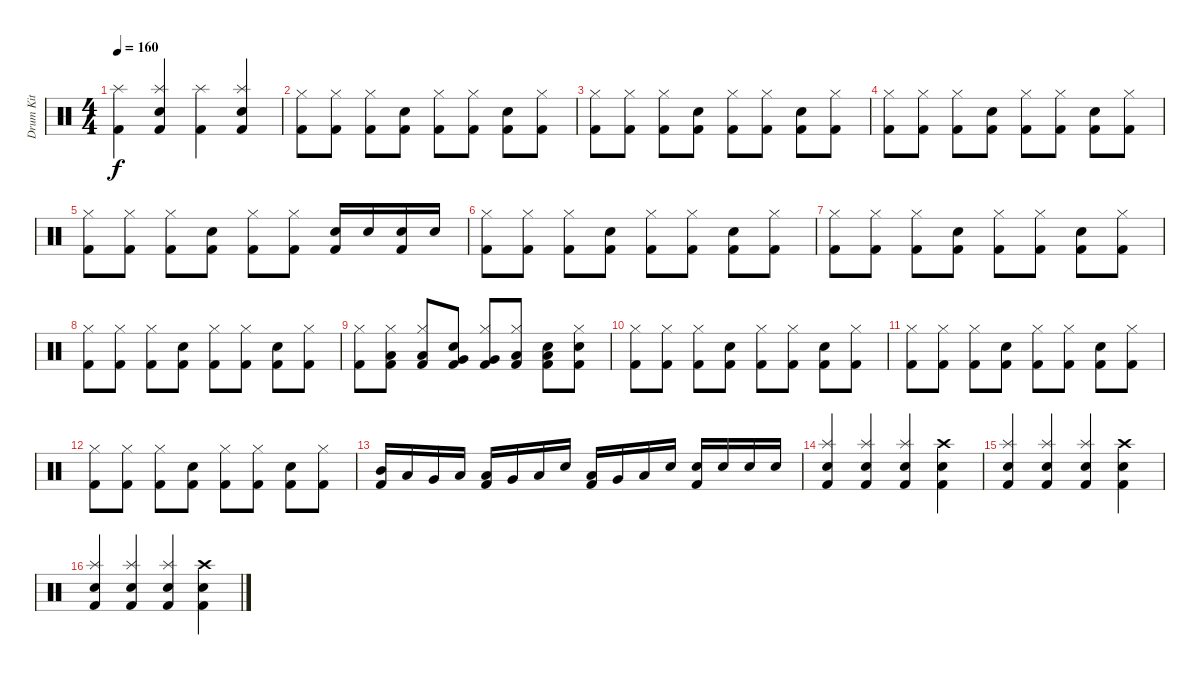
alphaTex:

\track ("Drum Kit" "Drum Kit") {instrument percussion}
\staff {score}
\articulation defaults
\ts (4 4)
\tempo 160
\clef neutral
\ks c
("Kick (hit) 2" "Splash (hit)").4{dy f} ("Kick (hit) 2" "Electric Snare (hit)" "Splash (hit)").4 ("Kick (hit) 2" "Splash (hit)").4 ("Kick (hit) 2" "Electric Snare (hit)" "Splash (hit)").4 |
("Kick (hit) 2" "Hi-Hat (closed)").8 ("Kick (hit) 2" "Hi-Hat (closed)").8 ("Kick (hit) 2" "Hi-Hat (closed)").8 ("Kick (hit) 2" "Electric Snare (hit)").8 ("Kick (hit) 2" "Hi-Hat (closed)").8 ("Kick (hit) 2" "Hi-Hat (closed)").8 ("Kick (hit) 2" "Electric Snare (hit)").8 ("Kick (hit) 2" "Hi-Hat (closed)").8 |
("Kick (hit) 2" "Hi-Hat (closed)").8 ("Kick (hit) 2" "Hi-Hat (closed)").8 ("Kick (hit) 2" "Hi-Hat (closed)").8 ("Kick (hit) 2" "Electric Snare (hit)").8 ("Kick (hit) 2" "Hi-Hat (closed)").8 ("Kick (hit) 2" "Hi-Hat (closed)").8 ("Kick (hit) 2" "Electric Snare (hit)").8 ("Kick (hit) 2" "Hi-Hat (closed)").8 |
("Kick (hit) 2" "Hi-Hat (closed)").8 ("Kick (hit) 2" "Hi-Hat (closed)").8 ("Kick (hit) 2" "Hi-Hat (closed)").8 ("Kick (hit) 2" "Electric Snare (hit)").8 ("Kick (hit) 2" "Hi-Hat (closed)").8 ("Kick (hit) 2" "Hi-Hat (closed)").8 ("Kick (hit) 2" "Electric Snare (hit)").8 ("Kick (hit) 2" "Hi-Hat (closed)").8 |
("Kick (hit) 2" "Hi-Hat (closed)").8 ("Kick (hit) 2" "Hi-Hat (closed)").8 ("Kick (hit) 2" "Hi-Hat (closed)").8 ("Kick (hit) 2" "Electric Snare (hit)").8 ("Kick (hit) 2" "Hi-Hat (closed)").8 ("Kick (hit) 2" "Hi-Hat (closed)").8 ("Kick (hit) 2" "Electric Snare (hit)").16 "Electric Snare (hit)".16 ("Kick (hit) 2" "Electric Snare (hit)").16 "Electric Snare (hit)".16 |
("Kick (hit) 2" "Hi-Hat (closed)").8 ("Kick (hit) 2" "Hi-Hat (closed)").8 ("Kick (hit) 2" "Hi-Hat (closed)").8 ("Kick (hit) 2" "Electric Snare (hit)").8 ("Kick (hit) 2" "Hi-Hat (closed)").8 ("Kick (hit) 2" "Hi-Hat (closed)").8 ("Kick (hit) 2" "Electric Snare (hit)").8 ("Kick (hit) 2" "Hi-Hat (closed)").8 |
("Kick (hit) 2" "Hi-Hat (closed)").8 ("Kick (hit) 2" "Hi-Hat (closed)").8 ("Kick (hit) 2" "Hi-Hat (closed)").8 ("Kick (hit) 2" "Electric Snare (hit)").8 ("Kick (hit) 2" "Hi-Hat (closed)").8 ("Kick (hit) 2" "Hi-Hat (closed)").8 ("Kick (hit) 2" "Electric Snare (hit)").8 ("Kick (hit) 2" "Hi-Hat (closed)").8 |
("Kick (hit) 2" "Hi-Hat (closed)").8 ("Kick (hit) 2" "Hi-Hat (closed)").8 ("Kick (hit) 2" "Hi-Hat (closed)").8 ("Kick (hit) 2" "Electric Snare (hit)").8 ("Kick (hit) 2" "Hi-Hat (closed)").8 ("Kick (hit) 2" "Hi-Hat (closed)").8 ("Kick (hit) 2" "Electric Snare (hit)").8 ("Kick (hit) 2" "Hi-Hat (closed)").8 |
("Kick (hit) 2" "Hi-Hat (closed)").8 ("Kick (hit) 2" "Low Tom (hit)" "Hi-Hat (closed)").8 ("Kick (hit) 2" "Low Tom (hit)" "Hi-Hat (closed)").8 ("Kick (hit) 2" "Very Low Tom (hit)" "Electric Snare (hit)").8 ("Kick (hit) 2" "Very Low Tom (hit)" "Hi-Hat (closed)").8 ("Kick (hit) 2" "Low Floor Tom (hit)" "Hi-Hat (closed)").8 ("Kick (hit) 2" "Low Floor Tom (hit)" "Electric Snare (hit)").8 ("Kick (hit) 2" "Electric Snare (hit)" "Hi-Hat (closed)").8 |
("Kick (hit) 2" "Hi-Hat (closed)").8 ("Kick (hit) 2" "Hi-Hat (closed)").8 ("Kick (hit) 2" "Hi-Hat (closed)").8 ("Kick (hit) 2" "Electric Snare (hit)").8 ("Kick (hit) 2" "Hi-Hat (closed)").8 ("Kick (hit) 2" "Hi-Hat (closed)").8 ("Kick (hit) 2" "Electric Snare (hit)").8 ("Kick (hit) 2" "Hi-Hat (closed)").8 |
("Kick (hit) 2" "Hi-Hat (closed)").8 ("Kick (hit) 2" "Hi-Hat (closed)").8 ("Kick (hit) 2" "Hi-Hat (closed)").8 ("Kick (hit) 2" "Electric Snare (hit)").8 ("Kick (hit) 2" "Hi-Hat (closed)").8 ("Kick (hit) 2" "Hi-Hat (closed)").8 ("Kick (hit) 2" "Electric Snare (hit)").8 ("Kick (hit) 2" "Hi-Hat (closed)").8 |
("Kick (hit) 2" "Hi-Hat (closed)").8 ("Kick (hit) 2" "Hi-Hat (closed)").8 ("Kick (hit) 2" "Hi-Hat (closed)").8 ("Kick (hit) 2" "Electric Snare (hit)").8 ("Kick (hit) 2" "Hi-Hat (closed)").8 ("Kick (hit) 2" "Hi-Hat (closed)").8 ("Kick (hit) 2" "Electric Snare (hit)").8 ("Kick (hit) 2" "Hi-Hat (closed)").8 |
("Kick (hit) 2" "Mid Tom (hit)").16 "Low Tom (hit)".16 "Very Low Tom (hit)".16 "Low Floor Tom (hit)".16 ("Kick (hit) 2" "Low Tom (hit)").16 "Very Low Tom (hit)".16 "Low Floor Tom (hit)".16 "Electric Snare (hit)".16 ("Kick (hit) 2" "Low Tom (hit)").16 "Very Low Tom (hit)".16 "Low Floor Tom (hit)".16 "Electric Snare (hit)".16 ("Kick (hit) 2" "Electric Snare (hit)").16 "Electric Snare (hit)".16 "Electric Snare (hit)".16 "Electric Snare (hit)".16 |
("Kick (hit) 2" "Electric Snare (hit)" "Splash (hit)").4 ("Kick (hit) 2" "Electric Snare (hit)" "Splash (hit)").4 ("Kick (hit) 2" "Electric Snare (hit)" "Splash (hit)").4 ("Kick (hit) 2" "Electric Snare (hit)" "Crash high (hit)").4 |
("Kick (hit) 2" "Electric Snare (hit)" "Splash (hit)").4 ("Kick (hit) 2" "Electric Snare (hit)" "Splash (hit)").4 ("Kick (hit) 2" "Electric Snare (hit)" "Splash (hit)").4 ("Kick (hit) 2" "Electric Snare (hit)" "Crash high (hit)").4 |
("Kick (hit) 2" "Electric Snare (hit)" "Splash (hit)").4 ("Kick (hit) 2" "Electric Snare (hit)" "Splash (hit)").4 ("Kick (hit) 2" "Electric Snare (hit)" "Splash (hit)").4 ("Kick (hit) 2" "Electric Snare (hit)" "Crash high (hit)").4
